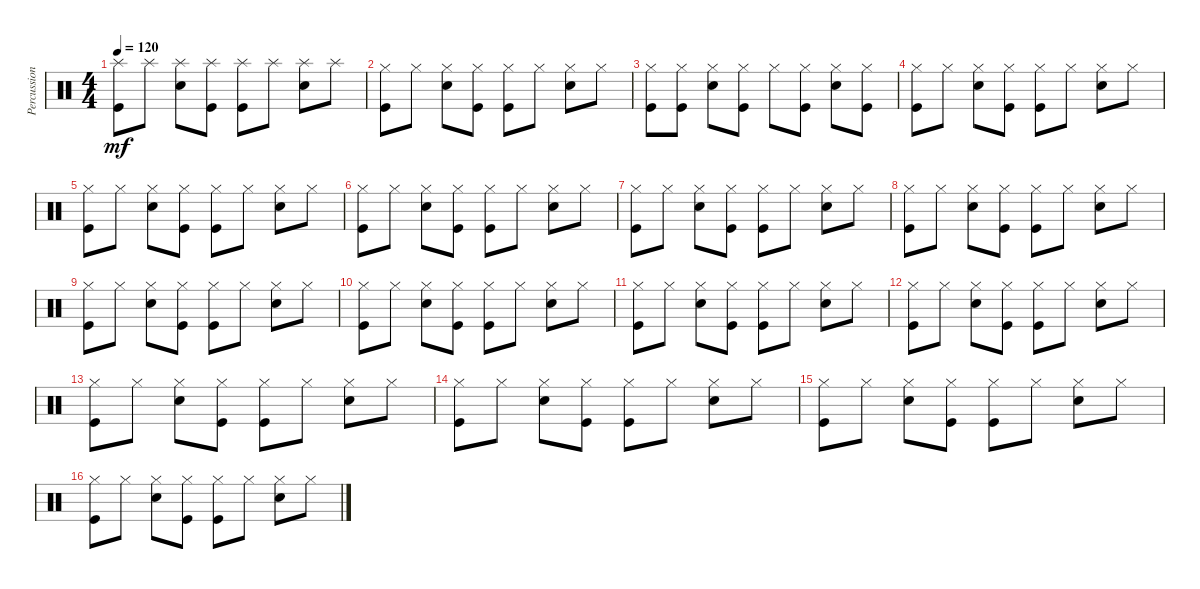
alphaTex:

\track ("Percussion" "Percussion") {instrument percussion}
\staff {score}
\articulation defaults
\ts (4 4)
\tempo 120
\clef neutral
\ks c
("Splash (hit)" "Kick (hit)").8{dy mf} "Splash (hit)".8 ("Splash (hit)" "Snare (hit) 2").8 ("Splash (hit)" "Kick (hit)").8 ("Splash (hit)" "Kick (hit)").8 "Splash (hit)".8 ("Splash (hit)" "Snare (hit) 2").8 "Splash (hit)".8 |
("Hi-Hat (closed)" "Kick (hit)").8 "Hi-Hat (closed)".8 ("Hi-Hat (closed)" "Snare (hit) 2").8 ("Hi-Hat (closed)" "Kick (hit)").8 ("Hi-Hat (closed)" "Kick (hit)").8 "Hi-Hat (closed)".8 ("Hi-Hat (closed)" "Snare (hit) 2").8 "Hi-Hat (closed)".8 |
("Hi-Hat (closed)" "Kick (hit)").8 ("Hi-Hat (closed)" "Kick (hit)").8 ("Hi-Hat (closed)" "Snare (hit) 2").8 ("Hi-Hat (closed)" "Kick (hit)").8 "Hi-Hat (closed)".8 ("Hi-Hat (closed)" "Kick (hit)").8 ("Hi-Hat (closed)" "Snare (hit) 2").8 ("Hi-Hat (closed)" "Kick (hit)").8 |
("Hi-Hat (closed)" "Kick (hit)").8 "Hi-Hat (closed)".8 ("Hi-Hat (closed)" "Snare (hit) 2").8 ("Hi-Hat (closed)" "Kick (hit)").8 ("Hi-Hat (closed)" "Kick (hit)").8 "Hi-Hat (closed)".8 ("Hi-Hat (closed)" "Snare (hit) 2").8 "Hi-Hat (closed)".8 |
("Hi-Hat (closed)" "Kick (hit)").8 "Hi-Hat (closed)".8 ("Hi-Hat (closed)" "Snare (hit) 2").8 ("Hi-Hat (closed)" "Kick (hit)").8 ("Hi-Hat (closed)" "Kick (hit)").8 "Hi-Hat (closed)".8 ("Hi-Hat (closed)" "Snare (hit) 2").8 "Hi-Hat (closed)".8 |
("Hi-Hat (closed)" "Kick (hit)").8 "Hi-Hat (closed)".8 ("Hi-Hat (closed)" "Snare (hit) 2").8 ("Hi-Hat (closed)" "Kick (hit)").8 ("Hi-Hat (closed)" "Kick (hit)").8 "Hi-Hat (closed)".8 ("Hi-Hat (closed)" "Snare (hit) 2").8 "Hi-Hat (closed)".8 |
("Hi-Hat (closed)" "Kick (hit)").8 "Hi-Hat (closed)".8 ("Hi-Hat (closed)" "Snare (hit) 2").8 ("Hi-Hat (closed)" "Kick (hit)").8 ("Hi-Hat (closed)" "Kick (hit)").8 "Hi-Hat (closed)".8 ("Hi-Hat (closed)" "Snare (hit) 2").8 "Hi-Hat (closed)".8 |
("Hi-Hat (closed)" "Kick (hit)").8 "Hi-Hat (closed)".8 ("Hi-Hat (closed)" "Snare (hit) 2").8 ("Hi-Hat (closed)" "Kick (hit)").8 ("Hi-Hat (closed)" "Kick (hit)").8 "Hi-Hat (closed)".8 ("Hi-Hat (closed)" "Snare (hit) 2").8 "Hi-Hat (closed)".8 |
("Hi-Hat (closed)" "Kick (hit)").8 "Hi-Hat (closed)".8 ("Hi-Hat (closed)" "Snare (hit) 2").8 ("Hi-Hat (closed)" "Kick (hit)").8 ("Hi-Hat (closed)" "Kick (hit)").8 "Hi-Hat (closed)".8 ("Hi-Hat (closed)" "Snare (hit) 2").8 "Hi-Hat (closed)".8 |
("Hi-Hat (closed)" "Kick (hit)").8 "Hi-Hat (closed)".8 ("Hi-Hat (closed)" "Snare (hit) 2").8 ("Hi-Hat (closed)" "Kick (hit)").8 ("Hi-Hat (closed)" "Kick (hit)").8 "Hi-Hat (closed)".8 ("Hi-Hat (closed)" "Snare (hit) 2").8 "Hi-Hat (closed)".8 |
("Hi-Hat (closed)" "Kick (hit)").8 "Hi-Hat (closed)".8 ("Hi-Hat (closed)" "Snare (hit) 2").8 ("Hi-Hat (closed)" "Kick (hit)").8 ("Hi-Hat (closed)" "Kick (hit)").8 "Hi-Hat (closed)".8 ("Hi-Hat (closed)" "Snare (hit) 2").8 "Hi-Hat (closed)".8 |
("Hi-Hat (closed)" "Kick (hit)").8 "Hi-Hat (closed)".8 ("Hi-Hat (closed)" "Snare (hit) 2").8 ("Hi-Hat (closed)" "Kick (hit)").8 ("Hi-Hat (closed)" "Kick (hit)").8 "Hi-Hat (closed)".8 ("Hi-Hat (closed)" "Snare (hit) 2").8 "Hi-Hat (closed)".8 |
("Hi-Hat (closed)" "Kick (hit)").8 "Hi-Hat (closed)".8 ("Hi-Hat (closed)" "Snare (hit) 2").8 ("Hi-Hat (closed)" "Kick (hit)").8 ("Hi-Hat (closed)" "Kick (hit)").8 "Hi-Hat (closed)".8 ("Hi-Hat (closed)" "Snare (hit) 2").8 "Hi-Hat (closed)".8 |
("Hi-Hat (closed)" "Kick (hit)").8 "Hi-Hat (closed)".8 ("Hi-Hat (closed)" "Snare (hit) 2").8 ("Hi-Hat (closed)" "Kick (hit)").8 ("Hi-Hat (closed)" "Kick (hit)").8 "Hi-Hat (closed)".8 ("Hi-Hat (closed)" "Snare (hit) 2").8 "Hi-Hat (closed)".8 |
("Hi-Hat (closed)" "Kick (hit)").8 "Hi-Hat (closed)".8 ("Hi-Hat (closed)" "Snare (hit) 2").8 ("Hi-Hat (closed)" "Kick (hit)").8 ("Hi-Hat (closed)" "Kick (hit)").8 "Hi-Hat (closed)".8 ("Hi-Hat (closed)" "Snare (hit) 2").8 "Hi-Hat (closed)".8 |
("Hi-Hat (closed)" "Kick (hit)").8 "Hi-Hat (closed)".8 ("Hi-Hat (closed)" "Snare (hit) 2").8 ("Hi-Hat (closed)" "Kick (hit)").8 ("Hi-Hat (closed)" "Kick (hit)").8 "Hi-Hat (closed)".8 ("Hi-Hat (closed)" "Snare (hit) 2").8 "Hi-Hat (closed)".8
